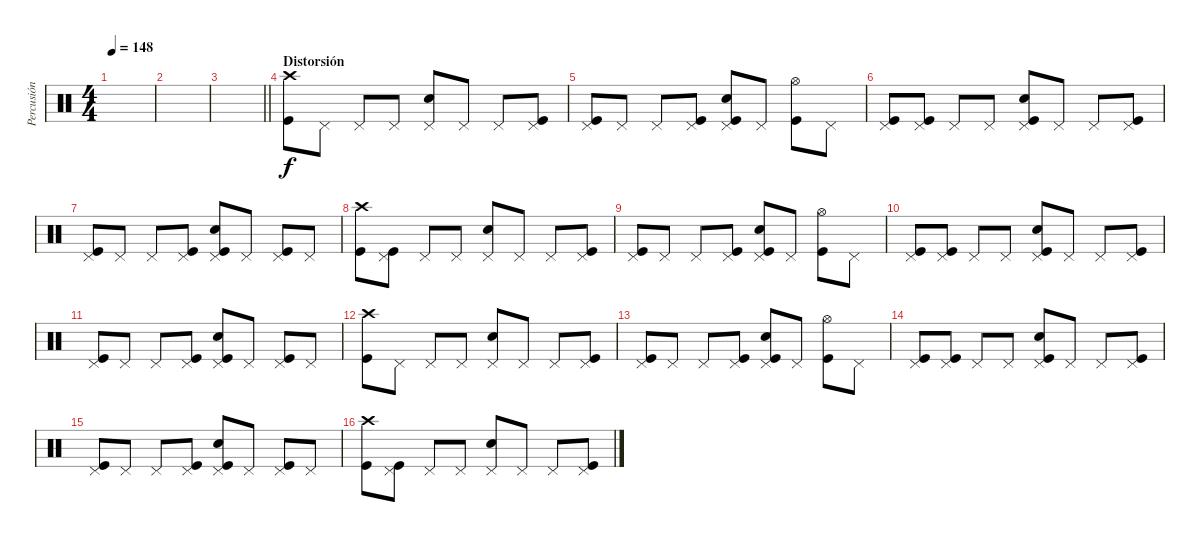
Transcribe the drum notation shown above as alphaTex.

\track ("Percusión" "Percusión") {instrument percussion}
\staff {score}
\articulation defaults
\ts (4 4)
\tempo 148
\clef neutral
\ks c
|
|
\barLineRight lightlight
|
\section ("" "Distorsión")
("Crash high (hit)" "Kick (hit)").8{volume 13} "Pedal Hi-Hat (hit)".8 "Pedal Hi-Hat (hit)".8 "Pedal Hi-Hat (hit)".8 ("Pedal Hi-Hat (hit)" "Electric Snare (hit)").8 "Pedal Hi-Hat (hit)".8 "Pedal Hi-Hat (hit)".8 ("Pedal Hi-Hat (hit)" "Kick (hit)").8 |
("Pedal Hi-Hat (hit)" "Kick (hit)").8 "Pedal Hi-Hat (hit)".8 "Pedal Hi-Hat (hit)".8 ("Pedal Hi-Hat (hit)" "Kick (hit)").8 ("Pedal Hi-Hat (hit)" "Electric Snare (hit)" "Kick (hit)").8 "Pedal Hi-Hat (hit)".8 ("Hi-Hat (open)" "Kick (hit)").8 "Pedal Hi-Hat (hit)".8 |
("Pedal Hi-Hat (hit)" "Kick (hit)").8 ("Pedal Hi-Hat (hit)" "Kick (hit)").8 "Pedal Hi-Hat (hit)".8 "Pedal Hi-Hat (hit)".8 ("Pedal Hi-Hat (hit)" "Electric Snare (hit)" "Kick (hit)").8 "Pedal Hi-Hat (hit)".8 "Pedal Hi-Hat (hit)".8 ("Pedal Hi-Hat (hit)" "Kick (hit)").8 |
("Pedal Hi-Hat (hit)" "Kick (hit)").8 "Pedal Hi-Hat (hit)".8 "Pedal Hi-Hat (hit)".8 ("Pedal Hi-Hat (hit)" "Kick (hit)").8 ("Pedal Hi-Hat (hit)" "Electric Snare (hit)" "Kick (hit)").8 "Pedal Hi-Hat (hit)".8 ("Pedal Hi-Hat (hit)" "Kick (hit)").8 "Pedal Hi-Hat (hit)".8 |
("Crash high (hit)" "Kick (hit)").8{volume 13} ("Pedal Hi-Hat (hit)" "Kick (hit)").8 "Pedal Hi-Hat (hit)".8 "Pedal Hi-Hat (hit)".8 ("Pedal Hi-Hat (hit)" "Electric Snare (hit)").8 "Pedal Hi-Hat (hit)".8 "Pedal Hi-Hat (hit)".8 ("Pedal Hi-Hat (hit)" "Kick (hit)").8 |
("Pedal Hi-Hat (hit)" "Kick (hit)").8 "Pedal Hi-Hat (hit)".8 "Pedal Hi-Hat (hit)".8 ("Pedal Hi-Hat (hit)" "Kick (hit)").8 ("Pedal Hi-Hat (hit)" "Electric Snare (hit)" "Kick (hit)").8 "Pedal Hi-Hat (hit)".8 ("Hi-Hat (open)" "Kick (hit)").8 "Pedal Hi-Hat (hit)".8 |
("Pedal Hi-Hat (hit)" "Kick (hit)").8 ("Pedal Hi-Hat (hit)" "Kick (hit)").8 "Pedal Hi-Hat (hit)".8 "Pedal Hi-Hat (hit)".8 ("Pedal Hi-Hat (hit)" "Electric Snare (hit)" "Kick (hit)").8 "Pedal Hi-Hat (hit)".8 "Pedal Hi-Hat (hit)".8 ("Pedal Hi-Hat (hit)" "Kick (hit)").8 |
("Pedal Hi-Hat (hit)" "Kick (hit)").8 "Pedal Hi-Hat (hit)".8 "Pedal Hi-Hat (hit)".8 ("Pedal Hi-Hat (hit)" "Kick (hit)").8 ("Pedal Hi-Hat (hit)" "Electric Snare (hit)" "Kick (hit)").8 "Pedal Hi-Hat (hit)".8 ("Pedal Hi-Hat (hit)" "Kick (hit)").8 "Pedal Hi-Hat (hit)".8 |
("Crash high (hit)" "Kick (hit)").8{volume 13} "Pedal Hi-Hat (hit)".8 "Pedal Hi-Hat (hit)".8 "Pedal Hi-Hat (hit)".8 ("Pedal Hi-Hat (hit)" "Electric Snare (hit)").8 "Pedal Hi-Hat (hit)".8 "Pedal Hi-Hat (hit)".8 ("Pedal Hi-Hat (hit)" "Kick (hit)").8 |
("Pedal Hi-Hat (hit)" "Kick (hit)").8 "Pedal Hi-Hat (hit)".8 "Pedal Hi-Hat (hit)".8 ("Pedal Hi-Hat (hit)" "Kick (hit)").8 ("Pedal Hi-Hat (hit)" "Electric Snare (hit)" "Kick (hit)").8 "Pedal Hi-Hat (hit)".8 ("Hi-Hat (open)" "Kick (hit)").8 "Pedal Hi-Hat (hit)".8 |
("Pedal Hi-Hat (hit)" "Kick (hit)").8 ("Pedal Hi-Hat (hit)" "Kick (hit)").8 "Pedal Hi-Hat (hit)".8 "Pedal Hi-Hat (hit)".8 ("Pedal Hi-Hat (hit)" "Electric Snare (hit)" "Kick (hit)").8 "Pedal Hi-Hat (hit)".8 "Pedal Hi-Hat (hit)".8 ("Pedal Hi-Hat (hit)" "Kick (hit)").8 |
("Pedal Hi-Hat (hit)" "Kick (hit)").8 "Pedal Hi-Hat (hit)".8 "Pedal Hi-Hat (hit)".8 ("Pedal Hi-Hat (hit)" "Kick (hit)").8 ("Pedal Hi-Hat (hit)" "Electric Snare (hit)" "Kick (hit)").8 "Pedal Hi-Hat (hit)".8 ("Pedal Hi-Hat (hit)" "Kick (hit)").8 "Pedal Hi-Hat (hit)".8 |
("Crash high (hit)" "Kick (hit)").8{volume 13} ("Pedal Hi-Hat (hit)" "Kick (hit)").8 "Pedal Hi-Hat (hit)".8 "Pedal Hi-Hat (hit)".8 ("Pedal Hi-Hat (hit)" "Electric Snare (hit)").8 "Pedal Hi-Hat (hit)".8 "Pedal Hi-Hat (hit)".8 ("Pedal Hi-Hat (hit)" "Kick (hit)").8
